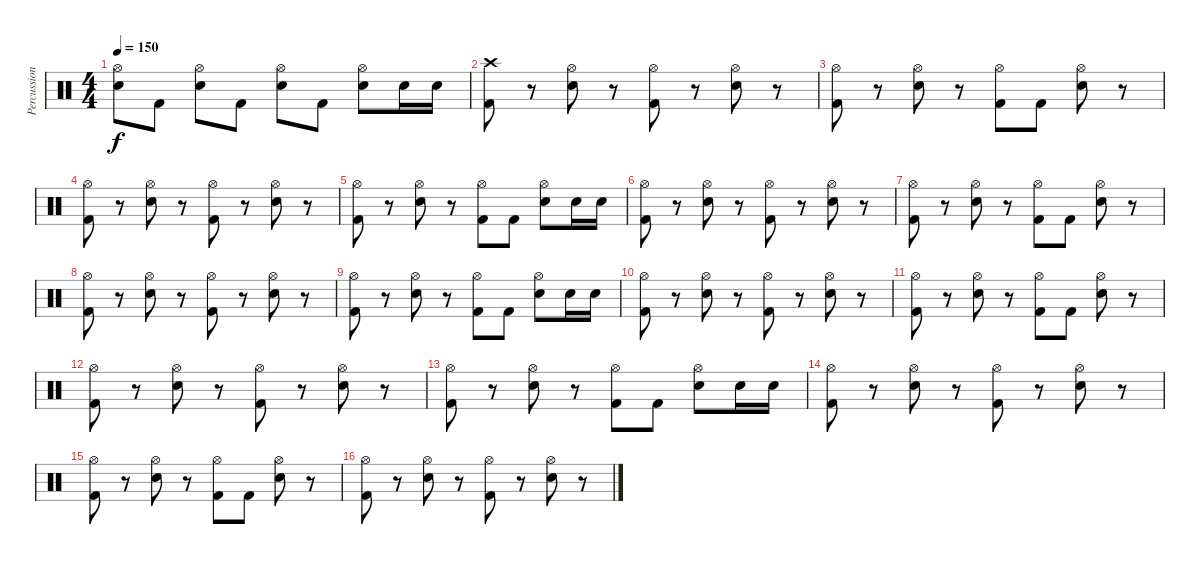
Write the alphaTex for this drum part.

\track ("Percussion" "Percussion") {instrument percussion}
\staff {score}
\articulation defaults
\ts (4 4)
\tempo 150
\clef neutral
\ks c
("Hi-Hat (open)" "Electric Snare (hit)").8{dy f} "Kick (hit) 2".8 ("Hi-Hat (open)" "Electric Snare (hit)").8 "Kick (hit) 2".8 ("Hi-Hat (open)" "Electric Snare (hit)").8 "Kick (hit) 2".8 ("Hi-Hat (open)" "Electric Snare (hit)").8 "Electric Snare (hit)".16 "Electric Snare (hit)".16 |
("Crash high (hit)" "Kick (hit) 2").8 r.8 ("Hi-Hat (open)" "Electric Snare (hit)").8 r.8 ("Hi-Hat (open)" "Kick (hit) 2").8 r.8 ("Hi-Hat (open)" "Electric Snare (hit)").8 r.8 |
("Hi-Hat (open)" "Kick (hit) 2").8 r.8 ("Hi-Hat (open)" "Electric Snare (hit)").8 r.8 ("Hi-Hat (open)" "Kick (hit) 2").8 "Kick (hit) 2".8 ("Hi-Hat (open)" "Electric Snare (hit)").8 r.8 |
("Hi-Hat (open)" "Kick (hit) 2").8 r.8 ("Hi-Hat (open)" "Electric Snare (hit)").8 r.8 ("Hi-Hat (open)" "Kick (hit) 2").8 r.8 ("Hi-Hat (open)" "Electric Snare (hit)").8 r.8 |
("Hi-Hat (open)" "Kick (hit) 2").8 r.8 ("Hi-Hat (open)" "Electric Snare (hit)").8 r.8 ("Hi-Hat (open)" "Kick (hit) 2").8 "Kick (hit) 2".8 ("Hi-Hat (open)" "Electric Snare (hit)").8 "Electric Snare (hit)".16 "Electric Snare (hit)".16 |
("Hi-Hat (open)" "Kick (hit) 2").8 r.8 ("Hi-Hat (open)" "Electric Snare (hit)").8 r.8 ("Hi-Hat (open)" "Kick (hit) 2").8 r.8 ("Hi-Hat (open)" "Electric Snare (hit)").8 r.8 |
("Hi-Hat (open)" "Kick (hit) 2").8 r.8 ("Hi-Hat (open)" "Electric Snare (hit)").8 r.8 ("Hi-Hat (open)" "Kick (hit) 2").8 "Kick (hit) 2".8 ("Hi-Hat (open)" "Electric Snare (hit)").8 r.8 |
("Hi-Hat (open)" "Kick (hit) 2").8 r.8 ("Hi-Hat (open)" "Electric Snare (hit)").8 r.8 ("Hi-Hat (open)" "Kick (hit) 2").8 r.8 ("Hi-Hat (open)" "Electric Snare (hit)").8 r.8 |
("Hi-Hat (open)" "Kick (hit) 2").8 r.8 ("Hi-Hat (open)" "Electric Snare (hit)").8 r.8 ("Hi-Hat (open)" "Kick (hit) 2").8 "Kick (hit) 2".8 ("Hi-Hat (open)" "Electric Snare (hit)").8 "Electric Snare (hit)".16 "Electric Snare (hit)".16 |
("Hi-Hat (open)" "Kick (hit) 2").8 r.8 ("Hi-Hat (open)" "Electric Snare (hit)").8 r.8 ("Hi-Hat (open)" "Kick (hit) 2").8 r.8 ("Hi-Hat (open)" "Electric Snare (hit)").8 r.8 |
("Hi-Hat (open)" "Kick (hit) 2").8 r.8 ("Hi-Hat (open)" "Electric Snare (hit)").8 r.8 ("Hi-Hat (open)" "Kick (hit) 2").8 "Kick (hit) 2".8 ("Hi-Hat (open)" "Electric Snare (hit)").8 r.8 |
("Hi-Hat (open)" "Kick (hit) 2").8 r.8 ("Hi-Hat (open)" "Electric Snare (hit)").8 r.8 ("Hi-Hat (open)" "Kick (hit) 2").8 r.8 ("Hi-Hat (open)" "Electric Snare (hit)").8 r.8 |
("Hi-Hat (open)" "Kick (hit) 2").8 r.8 ("Hi-Hat (open)" "Electric Snare (hit)").8 r.8 ("Hi-Hat (open)" "Kick (hit) 2").8 "Kick (hit) 2".8 ("Hi-Hat (open)" "Electric Snare (hit)").8 "Electric Snare (hit)".16 "Electric Snare (hit)".16 |
("Hi-Hat (open)" "Kick (hit) 2").8 r.8 ("Hi-Hat (open)" "Electric Snare (hit)").8 r.8 ("Hi-Hat (open)" "Kick (hit) 2").8 r.8 ("Hi-Hat (open)" "Electric Snare (hit)").8 r.8 |
("Hi-Hat (open)" "Kick (hit) 2").8 r.8 ("Hi-Hat (open)" "Electric Snare (hit)").8 r.8 ("Hi-Hat (open)" "Kick (hit) 2").8 "Kick (hit) 2".8 ("Hi-Hat (open)" "Electric Snare (hit)").8 r.8 |
("Hi-Hat (open)" "Kick (hit) 2").8 r.8 ("Hi-Hat (open)" "Electric Snare (hit)").8 r.8 ("Hi-Hat (open)" "Kick (hit) 2").8 r.8 ("Hi-Hat (open)" "Electric Snare (hit)").8 r.8
